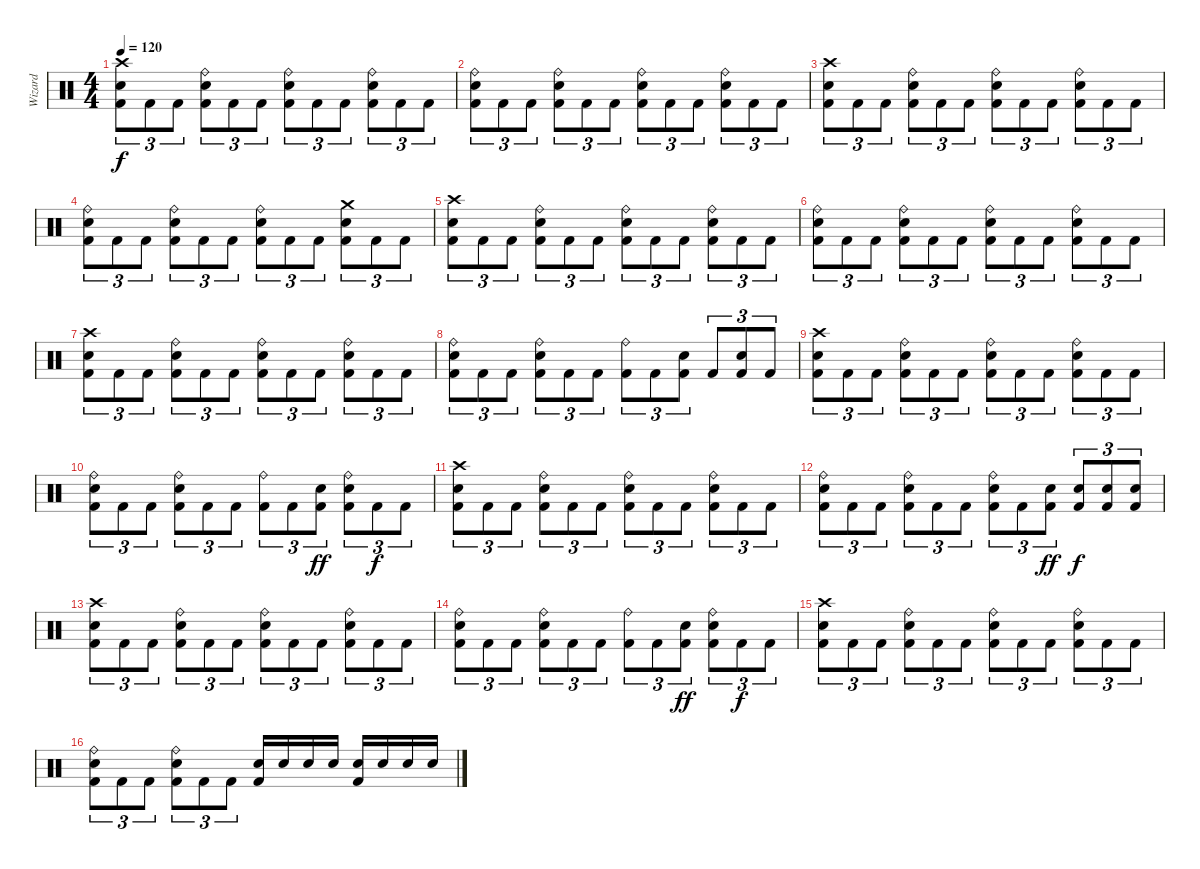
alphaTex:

\track ("Wizard" "Wizard") {instrument percussion}
\staff {score}
\articulation defaults
\ts (4 4)
\tempo 120
\clef neutral
\ks c
("Crash high (hit)" "Snare (hit) 2" "Kick (hit) 2").8{tu (3 2) dy f} "Kick (hit) 2".8{tu (3 2)} "Kick (hit) 2".8{tu (3 2)} ("Ride (bell)" "Snare (hit) 2" "Kick (hit) 2").8{tu (3 2)} "Kick (hit) 2".8{tu (3 2)} "Kick (hit) 2".8{tu (3 2)} ("Ride (bell)" "Snare (hit) 2" "Kick (hit) 2").8{tu (3 2)} "Kick (hit) 2".8{tu (3 2)} "Kick (hit) 2".8{tu (3 2)} ("Ride (bell)" "Snare (hit) 2" "Kick (hit) 2").8{tu (3 2)} "Kick (hit) 2".8{tu (3 2)} "Kick (hit) 2".8{tu (3 2)} |
("Ride (bell)" "Snare (hit) 2" "Kick (hit) 2").8{tu (3 2)} "Kick (hit) 2".8{tu (3 2)} "Kick (hit) 2".8{tu (3 2)} ("Ride (bell)" "Snare (hit) 2" "Kick (hit) 2").8{tu (3 2)} "Kick (hit) 2".8{tu (3 2)} "Kick (hit) 2".8{tu (3 2)} ("Ride (bell)" "Snare (hit) 2" "Kick (hit) 2").8{tu (3 2)} "Kick (hit) 2".8{tu (3 2)} "Kick (hit) 2".8{tu (3 2)} ("Ride (bell)" "Snare (hit) 2" "Kick (hit) 2").8{tu (3 2)} "Kick (hit) 2".8{tu (3 2)} "Kick (hit) 2".8{tu (3 2)} |
("Crash high (hit)" "Snare (hit) 2" "Kick (hit) 2").8{tu (3 2)} "Kick (hit) 2".8{tu (3 2)} "Kick (hit) 2".8{tu (3 2)} ("Ride (bell)" "Snare (hit) 2" "Kick (hit) 2").8{tu (3 2)} "Kick (hit) 2".8{tu (3 2)} "Kick (hit) 2".8{tu (3 2)} ("Ride (bell)" "Snare (hit) 2" "Kick (hit) 2").8{tu (3 2)} "Kick (hit) 2".8{tu (3 2)} "Kick (hit) 2".8{tu (3 2)} ("Ride (bell)" "Snare (hit) 2" "Kick (hit) 2").8{tu (3 2)} "Kick (hit) 2".8{tu (3 2)} "Kick (hit) 2".8{tu (3 2)} |
("Ride (bell)" "Snare (hit) 2" "Kick (hit) 2").8{tu (3 2)} "Kick (hit) 2".8{tu (3 2)} "Kick (hit) 2".8{tu (3 2)} ("Ride (bell)" "Snare (hit) 2" "Kick (hit) 2").8{tu (3 2)} "Kick (hit) 2".8{tu (3 2)} "Kick (hit) 2".8{tu (3 2)} ("Ride (bell)" "Snare (hit) 2" "Kick (hit) 2").8{tu (3 2)} "Kick (hit) 2".8{tu (3 2)} "Kick (hit) 2".8{tu (3 2)} ("Crash medium (hit)" "Snare (hit) 2" "Kick (hit) 2").8{tu (3 2)} "Kick (hit) 2".8{tu (3 2)} "Kick (hit) 2".8{tu (3 2)} |
("Crash high (hit)" "Snare (hit) 2" "Kick (hit) 2").8{tu (3 2)} "Kick (hit) 2".8{tu (3 2)} "Kick (hit) 2".8{tu (3 2)} ("Ride (bell)" "Snare (hit) 2" "Kick (hit) 2").8{tu (3 2)} "Kick (hit) 2".8{tu (3 2)} "Kick (hit) 2".8{tu (3 2)} ("Ride (bell)" "Snare (hit) 2" "Kick (hit) 2").8{tu (3 2)} "Kick (hit) 2".8{tu (3 2)} "Kick (hit) 2".8{tu (3 2)} ("Ride (bell)" "Snare (hit) 2" "Kick (hit) 2").8{tu (3 2)} "Kick (hit) 2".8{tu (3 2)} "Kick (hit) 2".8{tu (3 2)} |
("Ride (bell)" "Snare (hit) 2" "Kick (hit) 2").8{tu (3 2)} "Kick (hit) 2".8{tu (3 2)} "Kick (hit) 2".8{tu (3 2)} ("Ride (bell)" "Snare (hit) 2" "Kick (hit) 2").8{tu (3 2)} "Kick (hit) 2".8{tu (3 2)} "Kick (hit) 2".8{tu (3 2)} ("Ride (bell)" "Snare (hit) 2" "Kick (hit) 2").8{tu (3 2)} "Kick (hit) 2".8{tu (3 2)} "Kick (hit) 2".8{tu (3 2)} ("Ride (bell)" "Snare (hit) 2" "Kick (hit) 2").8{tu (3 2)} "Kick (hit) 2".8{tu (3 2)} "Kick (hit) 2".8{tu (3 2)} |
("Crash high (hit)" "Snare (hit) 2" "Kick (hit) 2").8{tu (3 2)} "Kick (hit) 2".8{tu (3 2)} "Kick (hit) 2".8{tu (3 2)} ("Ride (bell)" "Snare (hit) 2" "Kick (hit) 2").8{tu (3 2)} "Kick (hit) 2".8{tu (3 2)} "Kick (hit) 2".8{tu (3 2)} ("Ride (bell)" "Snare (hit) 2" "Kick (hit) 2").8{tu (3 2)} "Kick (hit) 2".8{tu (3 2)} "Kick (hit) 2".8{tu (3 2)} ("Ride (bell)" "Snare (hit) 2" "Kick (hit) 2").8{tu (3 2)} "Kick (hit) 2".8{tu (3 2)} "Kick (hit) 2".8{tu (3 2)} |
("Ride (bell)" "Snare (hit) 2" "Kick (hit) 2").8{tu (3 2)} "Kick (hit) 2".8{tu (3 2)} "Kick (hit) 2".8{tu (3 2)} ("Ride (bell)" "Snare (hit) 2" "Kick (hit) 2").8{tu (3 2)} "Kick (hit) 2".8{tu (3 2)} "Kick (hit) 2".8{tu (3 2)} ("Ride (bell)" "Kick (hit) 2").8{tu (3 2)} "Kick (hit) 2".8{tu (3 2)} ("Snare (hit) 2" "Kick (hit) 2").8{tu (3 2)} "Kick (hit) 2".8{tu (3 2)} ("Snare (hit) 2" "Kick (hit) 2").8{tu (3 2)} "Kick (hit) 2".8{tu (3 2)} |
("Crash high (hit)" "Snare (hit) 2" "Kick (hit) 2").8{tu (3 2)} "Kick (hit) 2".8{tu (3 2)} "Kick (hit) 2".8{tu (3 2)} ("Ride (bell)" "Snare (hit) 2" "Kick (hit) 2").8{tu (3 2)} "Kick (hit) 2".8{tu (3 2)} "Kick (hit) 2".8{tu (3 2)} ("Ride (bell)" "Snare (hit) 2" "Kick (hit) 2").8{tu (3 2)} "Kick (hit) 2".8{tu (3 2)} "Kick (hit) 2".8{tu (3 2)} ("Ride (bell)" "Snare (hit) 2" "Kick (hit) 2").8{tu (3 2)} "Kick (hit) 2".8{tu (3 2)} "Kick (hit) 2".8{tu (3 2)} |
("Ride (bell)" "Snare (hit) 2" "Kick (hit) 2").8{tu (3 2)} "Kick (hit) 2".8{tu (3 2)} "Kick (hit) 2".8{tu (3 2)} ("Ride (bell)" "Snare (hit) 2" "Kick (hit) 2").8{tu (3 2)} "Kick (hit) 2".8{tu (3 2)} "Kick (hit) 2".8{tu (3 2)} ("Ride (bell)" "Kick (hit) 2").8{tu (3 2)} "Kick (hit) 2".8{tu (3 2)} ("Snare (hit) 2" "Kick (hit) 2").8{tu (3 2) dy ff} ("Ride (bell)" "Snare (hit) 2" "Kick (hit) 2").8{tu (3 2)} "Kick (hit) 2".8{tu (3 2) dy f} "Kick (hit) 2".8{tu (3 2)} |
("Crash high (hit)" "Snare (hit) 2" "Kick (hit) 2").8{tu (3 2)} "Kick (hit) 2".8{tu (3 2)} "Kick (hit) 2".8{tu (3 2)} ("Ride (bell)" "Snare (hit) 2" "Kick (hit) 2").8{tu (3 2)} "Kick (hit) 2".8{tu (3 2)} "Kick (hit) 2".8{tu (3 2)} ("Ride (bell)" "Snare (hit) 2" "Kick (hit) 2").8{tu (3 2)} "Kick (hit) 2".8{tu (3 2)} "Kick (hit) 2".8{tu (3 2)} ("Ride (bell)" "Snare (hit) 2" "Kick (hit) 2").8{tu (3 2)} "Kick (hit) 2".8{tu (3 2)} "Kick (hit) 2".8{tu (3 2)} |
("Ride (bell)" "Snare (hit) 2" "Kick (hit) 2").8{tu (3 2)} "Kick (hit) 2".8{tu (3 2)} "Kick (hit) 2".8{tu (3 2)} ("Ride (bell)" "Snare (hit) 2" "Kick (hit) 2").8{tu (3 2)} "Kick (hit) 2".8{tu (3 2)} "Kick (hit) 2".8{tu (3 2)} ("Ride (bell)" "Snare (hit) 2" "Kick (hit) 2").8{tu (3 2)} "Kick (hit) 2".8{tu (3 2)} ("Snare (hit) 2" "Kick (hit) 2").8{tu (3 2) dy ff} ("Snare (hit) 2" "Kick (hit) 2").8{tu (3 2) dy f} ("Snare (hit) 2" "Kick (hit) 2").8{tu (3 2)} ("Snare (hit) 2" "Kick (hit) 2").8{tu (3 2)} |
("Crash high (hit)" "Snare (hit) 2" "Kick (hit) 2").8{tu (3 2)} "Kick (hit) 2".8{tu (3 2)} "Kick (hit) 2".8{tu (3 2)} ("Ride (bell)" "Snare (hit) 2" "Kick (hit) 2").8{tu (3 2)} "Kick (hit) 2".8{tu (3 2)} "Kick (hit) 2".8{tu (3 2)} ("Ride (bell)" "Snare (hit) 2" "Kick (hit) 2").8{tu (3 2)} "Kick (hit) 2".8{tu (3 2)} "Kick (hit) 2".8{tu (3 2)} ("Ride (bell)" "Snare (hit) 2" "Kick (hit) 2").8{tu (3 2)} "Kick (hit) 2".8{tu (3 2)} "Kick (hit) 2".8{tu (3 2)} |
("Ride (bell)" "Snare (hit) 2" "Kick (hit) 2").8{tu (3 2)} "Kick (hit) 2".8{tu (3 2)} "Kick (hit) 2".8{tu (3 2)} ("Ride (bell)" "Snare (hit) 2" "Kick (hit) 2").8{tu (3 2)} "Kick (hit) 2".8{tu (3 2)} "Kick (hit) 2".8{tu (3 2)} ("Ride (bell)" "Kick (hit) 2").8{tu (3 2)} "Kick (hit) 2".8{tu (3 2)} ("Snare (hit) 2" "Kick (hit) 2").8{tu (3 2) dy ff} ("Ride (bell)" "Snare (hit) 2" "Kick (hit) 2").8{tu (3 2)} "Kick (hit) 2".8{tu (3 2) dy f} "Kick (hit) 2".8{tu (3 2)} |
("Crash high (hit)" "Snare (hit) 2" "Kick (hit) 2").8{tu (3 2)} "Kick (hit) 2".8{tu (3 2)} "Kick (hit) 2".8{tu (3 2)} ("Ride (bell)" "Snare (hit) 2" "Kick (hit) 2").8{tu (3 2)} "Kick (hit) 2".8{tu (3 2)} "Kick (hit) 2".8{tu (3 2)} ("Ride (bell)" "Snare (hit) 2" "Kick (hit) 2").8{tu (3 2)} "Kick (hit) 2".8{tu (3 2)} "Kick (hit) 2".8{tu (3 2)} ("Ride (bell)" "Snare (hit) 2" "Kick (hit) 2").8{tu (3 2)} "Kick (hit) 2".8{tu (3 2)} "Kick (hit) 2".8{tu (3 2)} |
("Ride (bell)" "Snare (hit) 2" "Kick (hit) 2").8{tu (3 2)} "Kick (hit) 2".8{tu (3 2)} "Kick (hit) 2".8{tu (3 2)} ("Ride (bell)" "Snare (hit) 2" "Kick (hit) 2").8{tu (3 2)} "Kick (hit) 2".8{tu (3 2)} "Kick (hit) 2".8{tu (3 2)} ("Snare (hit) 2" "Kick (hit) 2").16 "Snare (hit) 2".16 "Snare (hit) 2".16 "Snare (hit) 2".16 ("Snare (hit) 2" "Kick (hit) 2").16 "Snare (hit) 2".16 "Snare (hit) 2".16 "Snare (hit) 2".16
